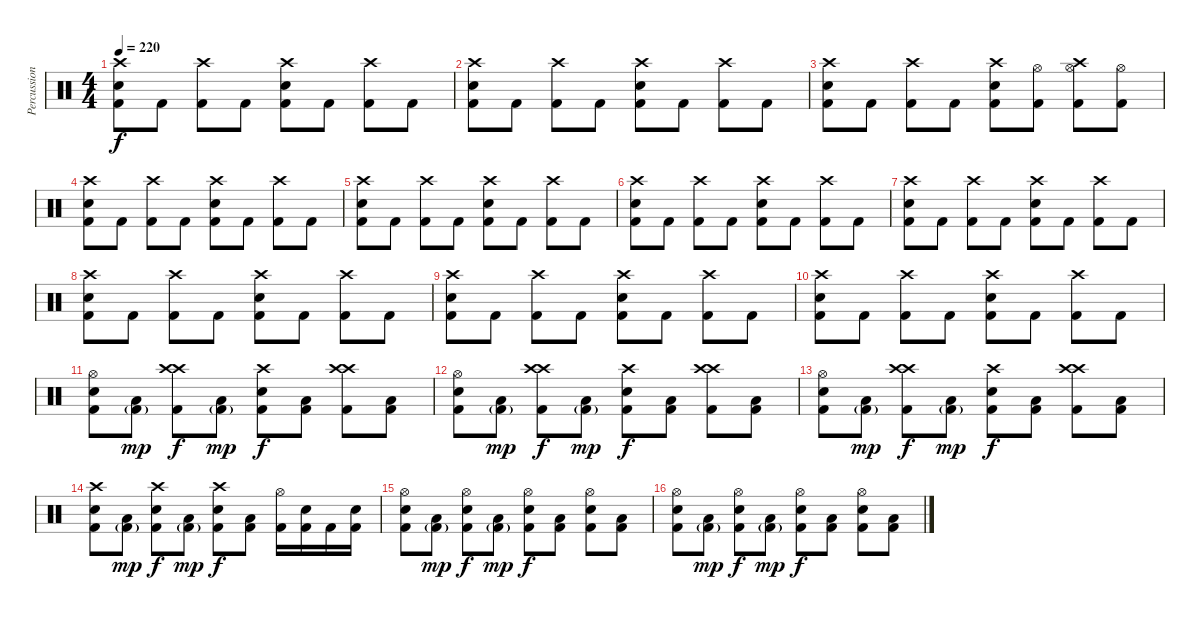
\track ("Percussions" "Percussion") {instrument percussion}
\staff {score}
\articulation defaults
\ts (4 4)
\tempo 220
\clef neutral
\ks c
("Crash high (hit)" "Electric Snare (hit)" "Kick (hit) 2").8{dy f} "Kick (hit) 2".8 ("Crash high (hit)" "Kick (hit) 2").8 "Kick (hit) 2".8 ("Crash high (hit)" "Electric Snare (hit)" "Kick (hit) 2").8 "Kick (hit) 2".8 ("Crash high (hit)" "Kick (hit) 2").8 "Kick (hit) 2".8 |
("Crash high (hit)" "Electric Snare (hit)" "Kick (hit) 2").8 "Kick (hit) 2".8 ("Crash high (hit)" "Kick (hit) 2").8 "Kick (hit) 2".8 ("Crash high (hit)" "Electric Snare (hit)" "Kick (hit) 2").8 "Kick (hit) 2".8 ("Crash high (hit)" "Kick (hit) 2").8 "Kick (hit) 2".8 |
("Crash high (hit)" "Electric Snare (hit)" "Kick (hit) 2").8 "Kick (hit) 2".8 ("Crash high (hit)" "Kick (hit) 2").8 "Kick (hit) 2".8 ("Crash high (hit)" "Electric Snare (hit)" "Kick (hit) 2").8 ("Hi-Hat (open)" "Kick (hit) 2").8 ("Crash high (hit)" "Hi-Hat (open)" "Kick (hit) 2").8 ("Hi-Hat (open)" "Kick (hit) 2").8 |
("Crash high (hit)" "Electric Snare (hit)" "Kick (hit) 2").8 "Kick (hit) 2".8 ("Crash high (hit)" "Kick (hit) 2").8 "Kick (hit) 2".8 ("Crash high (hit)" "Electric Snare (hit)" "Kick (hit) 2").8 "Kick (hit) 2".8 ("Crash high (hit)" "Kick (hit) 2").8 "Kick (hit) 2".8 |
("Crash high (hit)" "Electric Snare (hit)" "Kick (hit) 2").8 "Kick (hit) 2".8 ("Crash high (hit)" "Kick (hit) 2").8 "Kick (hit) 2".8 ("Crash high (hit)" "Electric Snare (hit)" "Kick (hit) 2").8 "Kick (hit) 2".8 ("Crash high (hit)" "Kick (hit) 2").8 "Kick (hit) 2".8 |
("Crash high (hit)" "Electric Snare (hit)" "Kick (hit) 2").8 "Kick (hit) 2".8 ("Crash high (hit)" "Kick (hit) 2").8 "Kick (hit) 2".8 ("Crash high (hit)" "Electric Snare (hit)" "Kick (hit) 2").8 "Kick (hit) 2".8 ("Crash high (hit)" "Kick (hit) 2").8 "Kick (hit) 2".8 |
("Crash high (hit)" "Electric Snare (hit)" "Kick (hit) 2").8 "Kick (hit) 2".8 ("Crash high (hit)" "Kick (hit) 2").8 "Kick (hit) 2".8 ("Crash high (hit)" "Electric Snare (hit)" "Kick (hit) 2").8 "Kick (hit) 2".8 ("Crash high (hit)" "Kick (hit) 2").8 "Kick (hit) 2".8 |
("Crash high (hit)" "Electric Snare (hit)" "Kick (hit) 2").8 "Kick (hit) 2".8 ("Crash high (hit)" "Kick (hit) 2").8 "Kick (hit) 2".8 ("Crash high (hit)" "Electric Snare (hit)" "Kick (hit) 2").8 "Kick (hit) 2".8 ("Crash high (hit)" "Kick (hit) 2").8 "Kick (hit) 2".8 |
("Crash high (hit)" "Electric Snare (hit)" "Kick (hit) 2").8 "Kick (hit) 2".8 ("Crash high (hit)" "Kick (hit) 2").8 "Kick (hit) 2".8 ("Crash high (hit)" "Electric Snare (hit)" "Kick (hit) 2").8 "Kick (hit) 2".8 ("Crash high (hit)" "Kick (hit) 2").8 "Kick (hit) 2".8 |
("Crash high (hit)" "Electric Snare (hit)" "Kick (hit) 2").8 "Kick (hit) 2".8 ("Crash high (hit)" "Kick (hit) 2").8 "Kick (hit) 2".8 ("Crash high (hit)" "Electric Snare (hit)" "Kick (hit) 2").8 "Kick (hit) 2".8 ("Crash high (hit)" "Kick (hit) 2").8 "Kick (hit) 2".8 |
("Hi-Hat (open)" "Electric Snare (hit)" "Kick (hit) 2").8 ("Low Tom (hit)" "Kick (hit) 2"{g}).8{dy mp} ("Crash high (hit)" "Crash high (hit)" "Kick (hit) 2").8{dy f} ("Low Tom (hit)" "Kick (hit) 2"{g}).8{dy mp} ("Crash high (hit)" "Electric Snare (hit)" "Kick (hit) 2").8{dy f} ("Low Tom (hit)" "Kick (hit) 2").8 ("Crash high (hit)" "Crash high (hit)" "Kick (hit) 2").8 ("Low Tom (hit)" "Kick (hit) 2").8 |
("Hi-Hat (open)" "Electric Snare (hit)" "Kick (hit) 2").8 ("Low Tom (hit)" "Kick (hit) 2"{g}).8{dy mp} ("Crash high (hit)" "Crash high (hit)" "Kick (hit) 2").8{dy f} ("Low Tom (hit)" "Kick (hit) 2"{g}).8{dy mp} ("Crash high (hit)" "Electric Snare (hit)" "Kick (hit) 2").8{dy f} ("Low Tom (hit)" "Kick (hit) 2").8 ("Crash high (hit)" "Crash high (hit)" "Kick (hit) 2").8 ("Low Tom (hit)" "Kick (hit) 2").8 |
("Hi-Hat (open)" "Electric Snare (hit)" "Kick (hit) 2").8 ("Low Tom (hit)" "Kick (hit) 2"{g}).8{dy mp} ("Crash high (hit)" "Crash high (hit)" "Kick (hit) 2").8{dy f} ("Low Tom (hit)" "Kick (hit) 2"{g}).8{dy mp} ("Crash high (hit)" "Electric Snare (hit)" "Kick (hit) 2").8{dy f} ("Low Tom (hit)" "Kick (hit) 2").8 ("Crash high (hit)" "Crash high (hit)" "Kick (hit) 2").8 ("Low Tom (hit)" "Kick (hit) 2").8 |
("Crash high (hit)" "Electric Snare (hit)" "Kick (hit) 2").8 ("Low Tom (hit)" "Kick (hit) 2"{g}).8{dy mp} ("Crash high (hit)" "Electric Snare (hit)" "Kick (hit) 2").8{dy f} ("Low Tom (hit)" "Kick (hit) 2"{g}).8{dy mp} ("Crash high (hit)" "Electric Snare (hit)" "Kick (hit) 2").8{dy f} ("Low Tom (hit)" "Kick (hit) 2").8 ("Hi-Hat (open)" "Kick (hit) 2").16 ("Electric Snare (hit)" "Kick (hit) 2").16 "Kick (hit) 2".16 ("Electric Snare (hit)" "Kick (hit) 2").16 |
("Hi-Hat (open)" "Electric Snare (hit)" "Kick (hit) 2").8 ("Low Tom (hit)" "Kick (hit) 2"{g}).8{dy mp} ("Hi-Hat (open)" "Electric Snare (hit)" "Kick (hit) 2").8{dy f} ("Low Tom (hit)" "Kick (hit) 2"{g}).8{dy mp} ("Hi-Hat (open)" "Electric Snare (hit)" "Kick (hit) 2").8{dy f} ("Low Tom (hit)" "Kick (hit) 2").8 ("Hi-Hat (open)" "Electric Snare (hit)" "Kick (hit) 2").8 ("Low Tom (hit)" "Kick (hit) 2").8 |
("Hi-Hat (open)" "Electric Snare (hit)" "Kick (hit) 2").8 ("Low Tom (hit)" "Kick (hit) 2"{g}).8{dy mp} ("Hi-Hat (open)" "Electric Snare (hit)" "Kick (hit) 2").8{dy f} ("Low Tom (hit)" "Kick (hit) 2"{g}).8{dy mp} ("Hi-Hat (open)" "Electric Snare (hit)" "Kick (hit) 2").8{dy f} ("Low Tom (hit)" "Kick (hit) 2").8 ("Hi-Hat (open)" "Electric Snare (hit)" "Kick (hit) 2").8 ("Low Tom (hit)" "Kick (hit) 2").8
